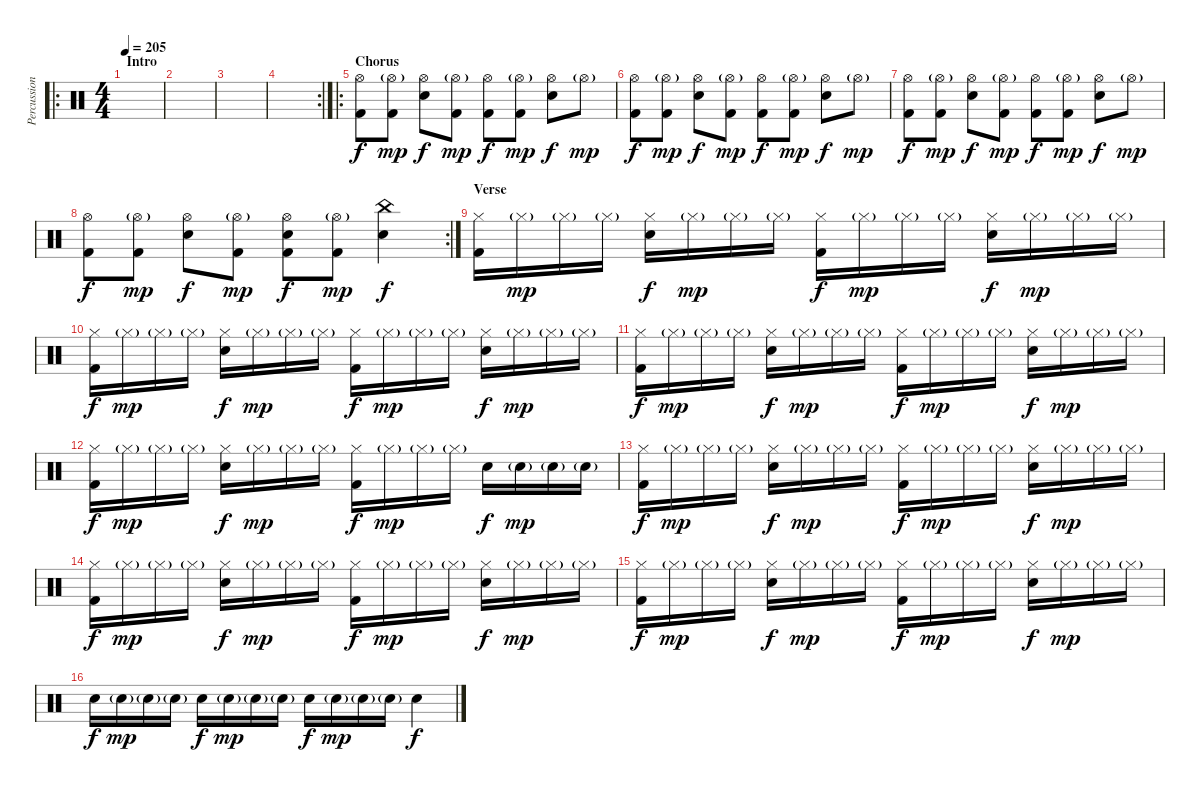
\track ("Percussion" "Percussion") {instrument percussion}
\staff {score}
\articulation defaults
\ro
\ts (4 4)
\section ("" "Intro")
\tempo 205
\clef neutral
\ks c
|
|
|
\rc 2
|
\ro
\section ("" "Chorus")
("Hi-Hat (open)" "Kick (hit) 2").8 ("Hi-Hat (open)"{g} "Kick (hit) 2").8{dy mp} ("Hi-Hat (open)" "Electric Snare (hit)").8{dy f} ("Hi-Hat (open)"{g} "Kick (hit) 2").8{dy mp} ("Hi-Hat (open)" "Kick (hit) 2").8{dy f} ("Hi-Hat (open)"{g} "Kick (hit) 2").8{dy mp} ("Hi-Hat (open)" "Electric Snare (hit)").8{dy f} "Hi-Hat (open)"{g}.8{dy mp} |
("Hi-Hat (open)" "Kick (hit) 2").8{dy f} ("Hi-Hat (open)"{g} "Kick (hit) 2").8{dy mp} ("Hi-Hat (open)" "Electric Snare (hit)").8{dy f} ("Hi-Hat (open)"{g} "Kick (hit) 2").8{dy mp} ("Hi-Hat (open)" "Kick (hit) 2").8{dy f} ("Hi-Hat (open)"{g} "Kick (hit) 2").8{dy mp} ("Hi-Hat (open)" "Electric Snare (hit)").8{dy f} "Hi-Hat (open)"{g}.8{dy mp} |
("Hi-Hat (open)" "Kick (hit) 2").8{dy f} ("Hi-Hat (open)"{g} "Kick (hit) 2").8{dy mp} ("Hi-Hat (open)" "Electric Snare (hit)").8{dy f} ("Hi-Hat (open)"{g} "Kick (hit) 2").8{dy mp} ("Hi-Hat (open)" "Kick (hit) 2").8{dy f} ("Hi-Hat (open)"{g} "Kick (hit) 2").8{dy mp} ("Hi-Hat (open)" "Electric Snare (hit)").8{dy f} "Hi-Hat (open)"{g}.8{dy mp} |
\rc 2
("Hi-Hat (open)" "Kick (hit) 2").8{dy f} ("Hi-Hat (open)"{g} "Kick (hit) 2").8{dy mp} ("Hi-Hat (open)" "Electric Snare (hit)").8{dy f} ("Hi-Hat (open)"{g} "Kick (hit) 2").8{dy mp} ("Hi-Hat (open)" "Electric Snare (hit)" "Kick (hit) 2").8{dy f} ("Hi-Hat (open)"{g} "Kick (hit) 2").8{dy mp} ("China (hit)" "Electric Snare (hit)").4{dy f} |
\section ("" "Verse")
("Hi-Hat (closed)" "Kick (hit) 2").16 "Hi-Hat (closed)"{g}.16{dy mp} "Hi-Hat (closed)"{g}.16 "Hi-Hat (closed)"{g}.16 ("Hi-Hat (closed)" "Electric Snare (hit)").16{dy f} "Hi-Hat (closed)"{g}.16{dy mp} "Hi-Hat (closed)"{g}.16 "Hi-Hat (closed)"{g}.16 ("Hi-Hat (closed)" "Kick (hit) 2").16{dy f} "Hi-Hat (closed)"{g}.16{dy mp} "Hi-Hat (closed)"{g}.16 "Hi-Hat (closed)"{g}.16 ("Hi-Hat (closed)" "Electric Snare (hit)").16{dy f} "Hi-Hat (closed)"{g}.16{dy mp} "Hi-Hat (closed)"{g}.16 "Hi-Hat (closed)"{g}.16 |
("Hi-Hat (closed)" "Kick (hit) 2").16{dy f} "Hi-Hat (closed)"{g}.16{dy mp} "Hi-Hat (closed)"{g}.16 "Hi-Hat (closed)"{g}.16 ("Hi-Hat (closed)" "Electric Snare (hit)").16{dy f} "Hi-Hat (closed)"{g}.16{dy mp} "Hi-Hat (closed)"{g}.16 "Hi-Hat (closed)"{g}.16 ("Hi-Hat (closed)" "Kick (hit) 2").16{dy f} "Hi-Hat (closed)"{g}.16{dy mp} "Hi-Hat (closed)"{g}.16 "Hi-Hat (closed)"{g}.16 ("Hi-Hat (closed)" "Electric Snare (hit)").16{dy f} "Hi-Hat (closed)"{g}.16{dy mp} "Hi-Hat (closed)"{g}.16 "Hi-Hat (closed)"{g}.16 |
("Hi-Hat (closed)" "Kick (hit) 2").16{dy f} "Hi-Hat (closed)"{g}.16{dy mp} "Hi-Hat (closed)"{g}.16 "Hi-Hat (closed)"{g}.16 ("Hi-Hat (closed)" "Electric Snare (hit)").16{dy f} "Hi-Hat (closed)"{g}.16{dy mp} "Hi-Hat (closed)"{g}.16 "Hi-Hat (closed)"{g}.16 ("Hi-Hat (closed)" "Kick (hit) 2").16{dy f} "Hi-Hat (closed)"{g}.16{dy mp} "Hi-Hat (closed)"{g}.16 "Hi-Hat (closed)"{g}.16 ("Hi-Hat (closed)" "Electric Snare (hit)").16{dy f} "Hi-Hat (closed)"{g}.16{dy mp} "Hi-Hat (closed)"{g}.16 "Hi-Hat (closed)"{g}.16 |
("Hi-Hat (closed)" "Kick (hit) 2").16{dy f} "Hi-Hat (closed)"{g}.16{dy mp} "Hi-Hat (closed)"{g}.16 "Hi-Hat (closed)"{g}.16 ("Hi-Hat (closed)" "Electric Snare (hit)").16{dy f} "Hi-Hat (closed)"{g}.16{dy mp} "Hi-Hat (closed)"{g}.16 "Hi-Hat (closed)"{g}.16 ("Hi-Hat (closed)" "Kick (hit) 2").16{dy f} "Hi-Hat (closed)"{g}.16{dy mp} "Hi-Hat (closed)"{g}.16 "Hi-Hat (closed)"{g}.16 "Electric Snare (hit)".16{dy f} "Electric Snare (hit)"{g}.16{dy mp} "Electric Snare (hit)"{g}.16 "Electric Snare (hit)"{g}.16 |
("Hi-Hat (closed)" "Kick (hit) 2").16{dy f} "Hi-Hat (closed)"{g}.16{dy mp} "Hi-Hat (closed)"{g}.16 "Hi-Hat (closed)"{g}.16 ("Hi-Hat (closed)" "Electric Snare (hit)").16{dy f} "Hi-Hat (closed)"{g}.16{dy mp} "Hi-Hat (closed)"{g}.16 "Hi-Hat (closed)"{g}.16 ("Hi-Hat (closed)" "Kick (hit) 2").16{dy f} "Hi-Hat (closed)"{g}.16{dy mp} "Hi-Hat (closed)"{g}.16 "Hi-Hat (closed)"{g}.16 ("Hi-Hat (closed)" "Electric Snare (hit)").16{dy f} "Hi-Hat (closed)"{g}.16{dy mp} "Hi-Hat (closed)"{g}.16 "Hi-Hat (closed)"{g}.16 |
("Hi-Hat (closed)" "Kick (hit) 2").16{dy f} "Hi-Hat (closed)"{g}.16{dy mp} "Hi-Hat (closed)"{g}.16 "Hi-Hat (closed)"{g}.16 ("Hi-Hat (closed)" "Electric Snare (hit)").16{dy f} "Hi-Hat (closed)"{g}.16{dy mp} "Hi-Hat (closed)"{g}.16 "Hi-Hat (closed)"{g}.16 ("Hi-Hat (closed)" "Kick (hit) 2").16{dy f} "Hi-Hat (closed)"{g}.16{dy mp} "Hi-Hat (closed)"{g}.16 "Hi-Hat (closed)"{g}.16 ("Hi-Hat (closed)" "Electric Snare (hit)").16{dy f} "Hi-Hat (closed)"{g}.16{dy mp} "Hi-Hat (closed)"{g}.16 "Hi-Hat (closed)"{g}.16 |
("Hi-Hat (closed)" "Kick (hit) 2").16{dy f} "Hi-Hat (closed)"{g}.16{dy mp} "Hi-Hat (closed)"{g}.16 "Hi-Hat (closed)"{g}.16 ("Hi-Hat (closed)" "Electric Snare (hit)").16{dy f} "Hi-Hat (closed)"{g}.16{dy mp} "Hi-Hat (closed)"{g}.16 "Hi-Hat (closed)"{g}.16 ("Hi-Hat (closed)" "Kick (hit) 2").16{dy f} "Hi-Hat (closed)"{g}.16{dy mp} "Hi-Hat (closed)"{g}.16 "Hi-Hat (closed)"{g}.16 ("Hi-Hat (closed)" "Electric Snare (hit)").16{dy f} "Hi-Hat (closed)"{g}.16{dy mp} "Hi-Hat (closed)"{g}.16 "Hi-Hat (closed)"{g}.16 |
"Electric Snare (hit)".16{dy f} "Electric Snare (hit)"{g}.16{dy mp} "Electric Snare (hit)"{g}.16 "Electric Snare (hit)"{g}.16 "Electric Snare (hit)".16{dy f} "Electric Snare (hit)"{g}.16{dy mp} "Electric Snare (hit)"{g}.16 "Electric Snare (hit)"{g}.16 "Electric Snare (hit)".16{dy f} "Electric Snare (hit)"{g}.16{dy mp} "Electric Snare (hit)"{g}.16 "Electric Snare (hit)"{g}.16 "Electric Snare (hit)".4{dy f}
